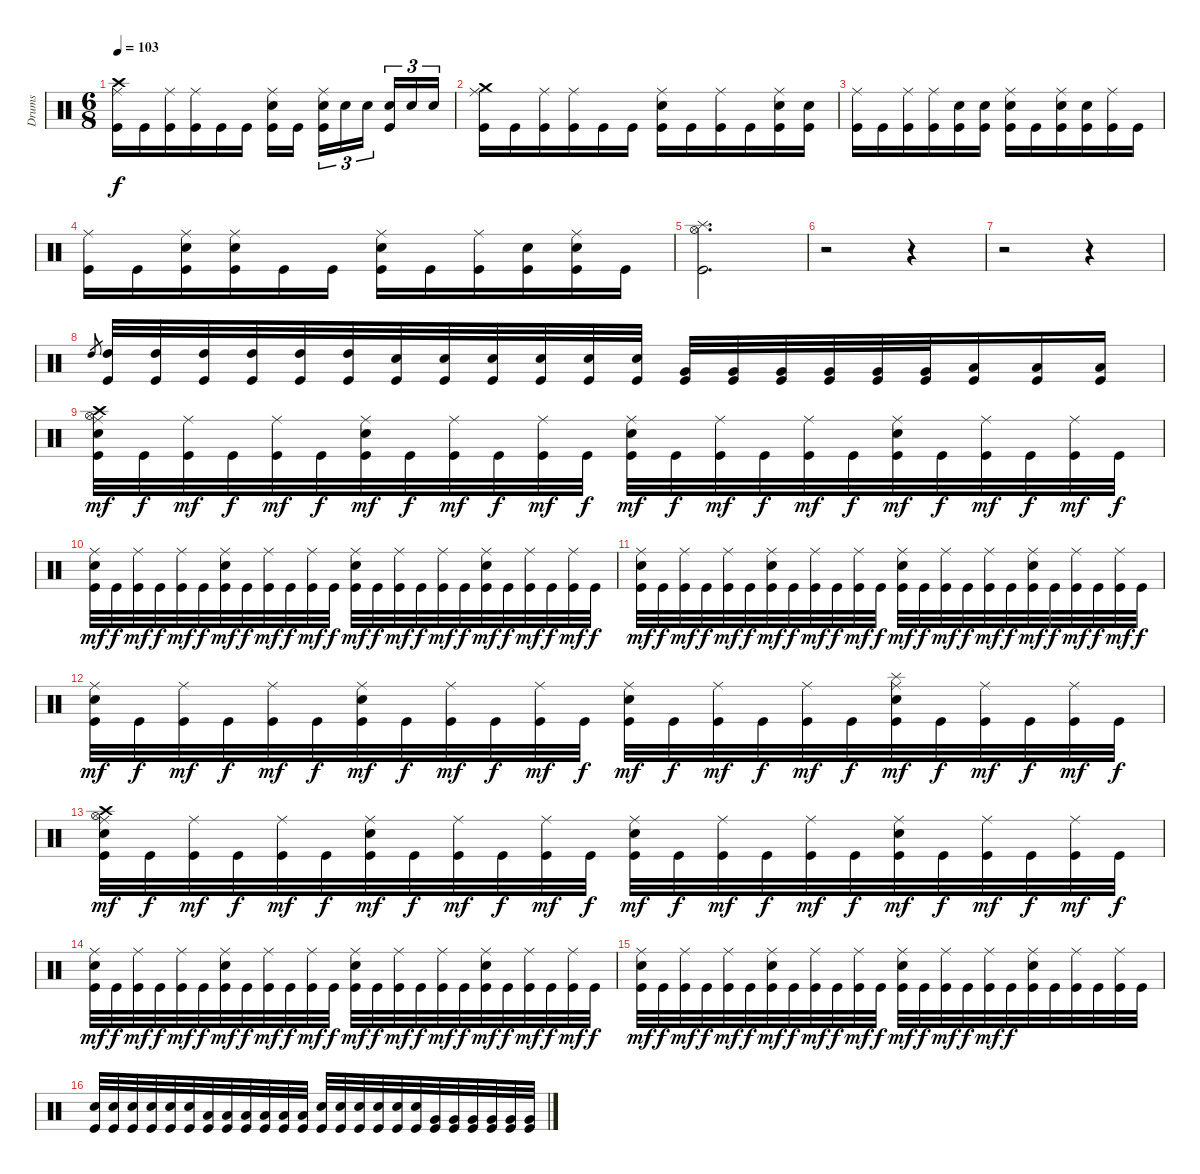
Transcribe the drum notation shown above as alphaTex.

\track ("Drums" "Drums") {instrument percussion}
\staff {score}
\articulation defaults
\ts (6 8)
\tempo 103
\clef neutral
\ks c
("Crash high (hit)" "Ride (middle)" "Kick (hit)").16{dy f} "Kick (hit)".16 ("Ride (middle)" "Kick (hit)").16 ("Ride (middle)" "Kick (hit)").16 "Kick (hit)".16 "Kick (hit)".16 ("Ride (middle)" "Electric Snare (hit)" "Kick (hit)").16 "Kick (hit)".16 ("Ride (middle)" "Electric Snare (hit)" "Kick (hit)").16{tu (3 2)} "Electric Snare (hit)".16{tu (3 2)} "Electric Snare (hit)".16{tu (3 2)} ("Electric Snare (hit)" "Kick (hit)").16{tu (3 2)} "Electric Snare (hit)".16{tu (3 2)} "Electric Snare (hit)".16{tu (3 2)} |
("Crash medium (hit)" "Ride (middle)" "Kick (hit)").16 "Kick (hit)".16 ("Ride (middle)" "Kick (hit)").16 ("Ride (middle)" "Kick (hit)").16 "Kick (hit)".16 "Kick (hit)".16 ("Ride (middle)" "Electric Snare (hit)" "Kick (hit)").16 "Kick (hit)".16 ("Ride (middle)" "Kick (hit)").16 "Kick (hit)".16 ("Ride (middle)" "Electric Snare (hit)" "Kick (hit)").16 ("Electric Snare (hit)" "Kick (hit)").16 |
("Ride (middle)" "Kick (hit)").16 "Kick (hit)".16 ("Ride (middle)" "Kick (hit)").16 ("Ride (middle)" "Kick (hit)").16 ("Electric Snare (hit)" "Kick (hit)").16 ("Electric Snare (hit)" "Kick (hit)").16 ("Ride (middle)" "Electric Snare (hit)" "Kick (hit)").16 "Kick (hit)".16 ("Ride (middle)" "Electric Snare (hit)" "Kick (hit)").16 ("Electric Snare (hit)" "Kick (hit)").16 ("Ride (middle)" "Kick (hit)").16 "Kick (hit)".16 |
("Ride (middle)" "Kick (hit)").16 "Kick (hit)".16 ("Ride (middle)" "Electric Snare (hit)" "Kick (hit)").16 ("Ride (middle)" "Electric Snare (hit)" "Kick (hit)").16 "Kick (hit)".16 "Kick (hit)".16 ("Ride (middle)" "Electric Snare (hit)" "Kick (hit)").16 "Kick (hit)".16 ("Ride (middle)" "Kick (hit)").16 ("Electric Snare (hit)" "Kick (hit)").16 ("Ride (middle)" "Electric Snare (hit)" "Kick (hit)").16 "Kick (hit)".16 |
("Splash (hit)" "Hi-Hat (open)" "Kick (hit)").2{d} |
r.2 r.4 |
r.2 r.4 |
"High Tom (hit)".8{gr} ("High Tom (hit)" "Kick (hit)").32 ("High Tom (hit)" "Kick (hit)").32 ("High Tom (hit)" "Kick (hit)").32 ("High Tom (hit)" "Kick (hit)").32 ("High Tom (hit)" "Kick (hit)").32 ("High Tom (hit)" "Kick (hit)").32 ("Electric Snare (hit)" "Kick (hit)").32 ("Electric Snare (hit)" "Kick (hit)").32 ("Electric Snare (hit)" "Kick (hit)").32 ("Electric Snare (hit)" "Kick (hit)").32 ("Electric Snare (hit)" "Kick (hit)").32 ("Electric Snare (hit)" "Kick (hit)").32 ("Very Low Tom (hit)" "Kick (hit)").32 ("Very Low Tom (hit)" "Kick (hit)").32 ("Very Low Tom (hit)" "Kick (hit)").32 ("Very Low Tom (hit)" "Kick (hit)").32 ("Very Low Tom (hit)" "Kick (hit)").32 ("Very Low Tom (hit)" "Kick (hit)").32 ("Low Floor Tom (hit)" "Kick (hit)").16 ("Low Floor Tom (hit)" "Kick (hit)").16 ("Low Floor Tom (hit)" "Kick (hit)").16 |
("Crash high (hit)" "Hi-Hat (open)" "Ride (middle)" "Electric Snare (hit)" "Kick (hit)").32{dy mf} "Kick (hit)".32{dy f} ("Ride (middle)" "Kick (hit)").32{dy mf} "Kick (hit)".32{dy f} ("Ride (middle)" "Kick (hit)").32{dy mf} "Kick (hit)".32{dy f} ("Ride (middle)" "Electric Snare (hit)" "Kick (hit)").32{dy mf} "Kick (hit)".32{dy f} ("Ride (middle)" "Kick (hit)").32{dy mf} "Kick (hit)".32{dy f} ("Ride (middle)" "Kick (hit)").32{dy mf} "Kick (hit)".32{dy f} ("Ride (middle)" "Electric Snare (hit)" "Kick (hit)").32{dy mf} "Kick (hit)".32{dy f} ("Ride (middle)" "Kick (hit)").32{dy mf} "Kick (hit)".32{dy f} ("Ride (middle)" "Kick (hit)").32{dy mf} "Kick (hit)".32{dy f} ("Ride (middle)" "Electric Snare (hit)" "Kick (hit)").32{dy mf} "Kick (hit)".32{dy f} ("Ride (middle)" "Kick (hit)").32{dy mf} "Kick (hit)".32{dy f} ("Ride (middle)" "Kick (hit)").32{dy mf} "Kick (hit)".32{dy f} |
("Ride (middle)" "Electric Snare (hit)" "Kick (hit)").32{dy mf} "Kick (hit)".32{dy f} ("Ride (middle)" "Kick (hit)").32{dy mf} "Kick (hit)".32{dy f} ("Ride (middle)" "Kick (hit)").32{dy mf} "Kick (hit)".32{dy f} ("Ride (middle)" "Electric Snare (hit)" "Kick (hit)").32{dy mf} "Kick (hit)".32{dy f} ("Ride (middle)" "Kick (hit)").32{dy mf} "Kick (hit)".32{dy f} ("Ride (middle)" "Kick (hit)").32{dy mf} "Kick (hit)".32{dy f} ("Ride (middle)" "Electric Snare (hit)" "Kick (hit)").32{dy mf} "Kick (hit)".32{dy f} ("Ride (middle)" "Kick (hit)").32{dy mf} "Kick (hit)".32{dy f} ("Ride (middle)" "Kick (hit)").32{dy mf} "Kick (hit)".32{dy f} ("Ride (middle)" "Electric Snare (hit)" "Kick (hit)").32{dy mf} "Kick (hit)".32{dy f} ("Ride (middle)" "Kick (hit)").32{dy mf} "Kick (hit)".32{dy f} ("Ride (middle)" "Kick (hit)").32{dy mf} "Kick (hit)".32{dy f} |
("Ride (middle)" "Electric Snare (hit)" "Kick (hit)").32{dy mf} "Kick (hit)".32{dy f} ("Ride (middle)" "Kick (hit)").32{dy mf} "Kick (hit)".32{dy f} ("Ride (middle)" "Kick (hit)").32{dy mf} "Kick (hit)".32{dy f} ("Ride (middle)" "Electric Snare (hit)" "Kick (hit)").32{dy mf} "Kick (hit)".32{dy f} ("Ride (middle)" "Kick (hit)").32{dy mf} "Kick (hit)".32{dy f} ("Ride (middle)" "Kick (hit)").32{dy mf} "Kick (hit)".32{dy f} ("Ride (middle)" "Electric Snare (hit)" "Kick (hit)").32{dy mf} "Kick (hit)".32{dy f} ("Ride (middle)" "Kick (hit)").32{dy mf} "Kick (hit)".32{dy f} ("Ride (middle)" "Kick (hit)").32{dy mf} "Kick (hit)".32{dy f} ("Ride (middle)" "Electric Snare (hit)" "Kick (hit)").32{dy mf} "Kick (hit)".32{dy f} ("Ride (middle)" "Kick (hit)").32{dy mf} "Kick (hit)".32{dy f} ("Ride (middle)" "Kick (hit)").32{dy mf} "Kick (hit)".32{dy f} |
("Ride (middle)" "Electric Snare (hit)" "Kick (hit)").32{dy mf} "Kick (hit)".32{dy f} ("Ride (middle)" "Kick (hit)").32{dy mf} "Kick (hit)".32{dy f} ("Ride (middle)" "Kick (hit)").32{dy mf} "Kick (hit)".32{dy f} ("Ride (middle)" "Electric Snare (hit)" "Kick (hit)").32{dy mf} "Kick (hit)".32{dy f} ("Ride (middle)" "Kick (hit)").32{dy mf} "Kick (hit)".32{dy f} ("Ride (middle)" "Kick (hit)").32{dy mf} "Kick (hit)".32{dy f} ("Ride (middle)" "Electric Snare (hit)" "Kick (hit)").32{dy mf} "Kick (hit)".32{dy f} ("Ride (middle)" "Kick (hit)").32{dy mf} "Kick (hit)".32{dy f} ("Ride (middle)" "Kick (hit)").32{dy mf} "Kick (hit)".32{dy f} ("Splash (hit)" "Ride (middle)" "Electric Snare (hit)" "Kick (hit)").32{dy mf} "Kick (hit)".32{dy f} ("Ride (middle)" "Kick (hit)").32{dy mf} "Kick (hit)".32{dy f} ("Ride (middle)" "Kick (hit)").32{dy mf} "Kick (hit)".32{dy f} |
("Crash high (hit)" "Hi-Hat (open)" "Ride (middle)" "Electric Snare (hit)" "Kick (hit)").32{dy mf} "Kick (hit)".32{dy f} ("Ride (middle)" "Kick (hit)").32{dy mf} "Kick (hit)".32{dy f} ("Ride (middle)" "Kick (hit)").32{dy mf} "Kick (hit)".32{dy f} ("Ride (middle)" "Electric Snare (hit)" "Kick (hit)").32{dy mf} "Kick (hit)".32{dy f} ("Ride (middle)" "Kick (hit)").32{dy mf} "Kick (hit)".32{dy f} ("Ride (middle)" "Kick (hit)").32{dy mf} "Kick (hit)".32{dy f} ("Ride (middle)" "Electric Snare (hit)" "Kick (hit)").32{dy mf} "Kick (hit)".32{dy f} ("Ride (middle)" "Kick (hit)").32{dy mf} "Kick (hit)".32{dy f} ("Ride (middle)" "Kick (hit)").32{dy mf} "Kick (hit)".32{dy f} ("Ride (middle)" "Electric Snare (hit)" "Kick (hit)").32{dy mf} "Kick (hit)".32{dy f} ("Ride (middle)" "Kick (hit)").32{dy mf} "Kick (hit)".32{dy f} ("Ride (middle)" "Kick (hit)").32{dy mf} "Kick (hit)".32{dy f} |
("Ride (middle)" "Electric Snare (hit)" "Kick (hit)").32{dy mf} "Kick (hit)".32{dy f} ("Ride (middle)" "Kick (hit)").32{dy mf} "Kick (hit)".32{dy f} ("Ride (middle)" "Kick (hit)").32{dy mf} "Kick (hit)".32{dy f} ("Ride (middle)" "Electric Snare (hit)" "Kick (hit)").32{dy mf} "Kick (hit)".32{dy f} ("Ride (middle)" "Kick (hit)").32{dy mf} "Kick (hit)".32{dy f} ("Ride (middle)" "Kick (hit)").32{dy mf} "Kick (hit)".32{dy f} ("Ride (middle)" "Electric Snare (hit)" "Kick (hit)").32{dy mf} "Kick (hit)".32{dy f} ("Ride (middle)" "Kick (hit)").32{dy mf} "Kick (hit)".32{dy f} ("Ride (middle)" "Kick (hit)").32{dy mf} "Kick (hit)".32{dy f} ("Ride (middle)" "Electric Snare (hit)" "Kick (hit)").32{dy mf} "Kick (hit)".32{dy f} ("Ride (middle)" "Kick (hit)").32{dy mf} "Kick (hit)".32{dy f} ("Ride (middle)" "Kick (hit)").32{dy mf} "Kick (hit)".32{dy f} |
("Ride (middle)" "Electric Snare (hit)" "Kick (hit)").32{dy mf} "Kick (hit)".32{dy f} ("Ride (middle)" "Kick (hit)").32{dy mf} "Kick (hit)".32{dy f} ("Ride (middle)" "Kick (hit)").32{dy mf} "Kick (hit)".32{dy f} ("Ride (middle)" "Electric Snare (hit)" "Kick (hit)").32{dy mf} "Kick (hit)".32{dy f} ("Ride (middle)" "Kick (hit)").32{dy mf} "Kick (hit)".32{dy f} ("Ride (middle)" "Kick (hit)").32{dy mf} "Kick (hit)".32{dy f} ("Ride (middle)" "Electric Snare (hit)" "Kick (hit)").32{dy mf} "Kick (hit)".32{dy f} ("Ride (middle)" "Kick (hit)").32{dy mf} "Kick (hit)".32{dy f} ("Ride (middle)" "Kick (hit)").32{dy mf} "Kick (hit)".32{dy f} ("Ride (middle)" "Electric Snare (hit)" "Kick (hit)").32 "Kick (hit)".32 ("Ride (middle)" "Kick (hit)").32 "Kick (hit)".32 ("Ride (middle)" "Kick (hit)").32 "Kick (hit)".32 |
("Electric Snare (hit)" "Kick (hit)").32 ("Electric Snare (hit)" "Kick (hit)").32 ("Electric Snare (hit)" "Kick (hit)").32 ("Electric Snare (hit)" "Kick (hit)").32 ("Electric Snare (hit)" "Kick (hit)").32 ("Electric Snare (hit)" "Kick (hit)").32 ("Low Tom (hit)" "Kick (hit)").32 ("Low Tom (hit)" "Kick (hit)").32 ("Low Tom (hit)" "Kick (hit)").32 ("Low Tom (hit)" "Kick (hit)").32 ("Low Tom (hit)" "Kick (hit)").32 ("Low Tom (hit)" "Kick (hit)").32 ("Electric Snare (hit)" "Kick (hit)").32 ("Electric Snare (hit)" "Kick (hit)").32 ("Electric Snare (hit)" "Kick (hit)").32 ("Electric Snare (hit)" "Kick (hit)").32 ("Electric Snare (hit)" "Kick (hit)").32 ("Electric Snare (hit)" "Kick (hit)").32 ("Very Low Tom (hit)" "Kick (hit)").32 ("Very Low Tom (hit)" "Kick (hit)").32 ("Very Low Tom (hit)" "Kick (hit)").32 ("Very Low Tom (hit)" "Kick (hit)").32 ("Very Low Tom (hit)" "Kick (hit)").32 ("Very Low Tom (hit)" "Kick (hit)").32
